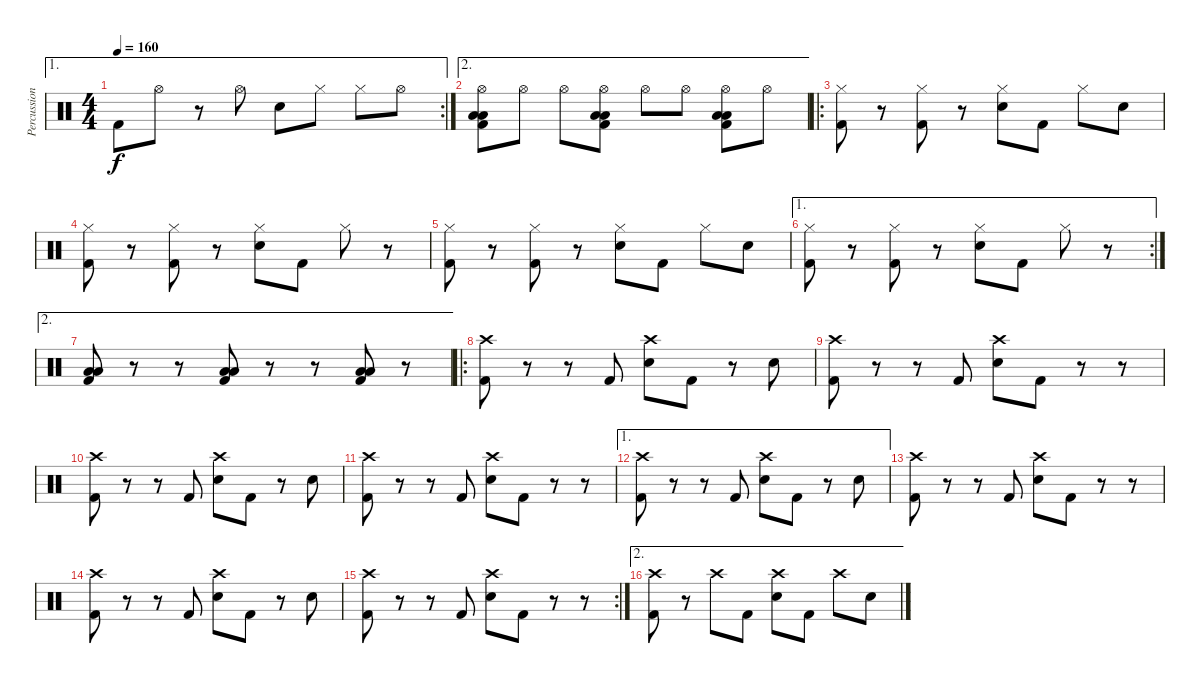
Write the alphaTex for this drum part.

\track ("Percussion" "Percussion") {instrument percussion}
\staff {score}
\articulation defaults
\ae 1
\rc 2
\ts (4 4)
\tempo 160
\clef neutral
\ks c "Kick (hit) 2".8{dy f} "Hi-Hat (open)".8
r.8 "Hi-Hat (open)".8 "Snare (hit) 2".8 "Hi-Hat (closed)".8 "Hi-Hat (closed)".8 "Hi-Hat (open)".8 |
\ae 2
("Hi-Hat (open)" "Low Tom (hit)" "Low Floor Tom (hit)" "Kick (hit) 2").8 "Hi-Hat (open)".8 "Hi-Hat (open)".8 ("Hi-Hat (open)" "Low Tom (hit)" "Low Floor Tom (hit)" "Kick (hit) 2").8 "Hi-Hat (open)".8 "Hi-Hat (open)".8 ("Hi-Hat (open)" "Low Tom (hit)" "Low Floor Tom (hit)" "Kick (hit) 2").8 "Hi-Hat (open)".8 |
\ro
("Hi-Hat (closed)" "Kick (hit) 2").8 r.8 ("Hi-Hat (closed)" "Kick (hit) 2").8 r.8 ("Hi-Hat (closed)" "Snare (hit) 2").8 "Kick (hit) 2".8 "Hi-Hat (closed)".8 "Snare (hit) 2".8 |
("Hi-Hat (closed)" "Kick (hit) 2").8 r.8 ("Hi-Hat (closed)" "Kick (hit) 2").8 r.8 ("Hi-Hat (closed)" "Snare (hit) 2").8 "Kick (hit) 2".8 "Hi-Hat (closed)".8 r.8 |
("Hi-Hat (closed)" "Kick (hit) 2").8 r.8 ("Hi-Hat (closed)" "Kick (hit) 2").8 r.8 ("Hi-Hat (closed)" "Snare (hit) 2").8 "Kick (hit) 2".8 "Hi-Hat (closed)".8 "Snare (hit) 2".8 |
\ae 1
\rc 2
("Hi-Hat (closed)" "Kick (hit) 2").8 r.8 ("Hi-Hat (closed)" "Kick (hit) 2").8 r.8 ("Hi-Hat (closed)" "Snare (hit) 2").8 "Kick (hit) 2".8 "Hi-Hat (closed)".8 r.8 |
\ae 2
("Low Tom (hit)" "Low Floor Tom (hit)" "Kick (hit) 2").8 r.8 r.8 ("Low Tom (hit)" "Low Floor Tom (hit)" "Kick (hit) 2").8 r.8 r.8 ("Low Tom (hit)" "Low Floor Tom (hit)" "Kick (hit) 2").8 r.8 |
\ro
("Crash high (hit)" "Kick (hit) 2").8 r.8 r.8 "Kick (hit) 2".8 ("Crash high (hit)" "Snare (hit) 2").8 "Kick (hit) 2".8 r.8 "Snare (hit) 2".8 |
("Crash high (hit)" "Kick (hit) 2").8 r.8 r.8 "Kick (hit) 2".8 ("Crash high (hit)" "Snare (hit) 2").8 "Kick (hit) 2".8 r.8 r.8 |
("Crash high (hit)" "Kick (hit) 2").8 r.8 r.8 "Kick (hit) 2".8 ("Crash high (hit)" "Snare (hit) 2").8 "Kick (hit) 2".8 r.8 "Snare (hit) 2".8 |
("Crash high (hit)" "Kick (hit) 2").8 r.8 r.8 "Kick (hit) 2".8 ("Crash high (hit)" "Snare (hit) 2").8 "Kick (hit) 2".8 r.8 r.8 |
\ae 1
("Crash high (hit)" "Kick (hit) 2").8 r.8 r.8 "Kick (hit) 2".8 ("Crash high (hit)" "Snare (hit) 2").8 "Kick (hit) 2".8 r.8 "Snare (hit) 2".8 |
("Crash high (hit)" "Kick (hit) 2").8 r.8 r.8 "Kick (hit) 2".8 ("Crash high (hit)" "Snare (hit) 2").8 "Kick (hit) 2".8 r.8 r.8 |
("Crash high (hit)" "Kick (hit) 2").8 r.8 r.8 "Kick (hit) 2".8 ("Crash high (hit)" "Snare (hit) 2").8 "Kick (hit) 2".8 r.8 "Snare (hit) 2".8 |
\rc 2
("Crash high (hit)" "Kick (hit) 2").8 r.8 r.8 "Kick (hit) 2".8 ("Crash high (hit)" "Snare (hit) 2").8 "Kick (hit) 2".8 r.8 r.8 |
\ae 2
("Crash high (hit)" "Kick (hit) 2").8 r.8 "Crash high (hit)".8 "Kick (hit) 2".8 ("Crash high (hit)" "Snare (hit) 2").8 "Kick (hit) 2".8 "Crash high (hit)".8 "Snare (hit) 2".8
